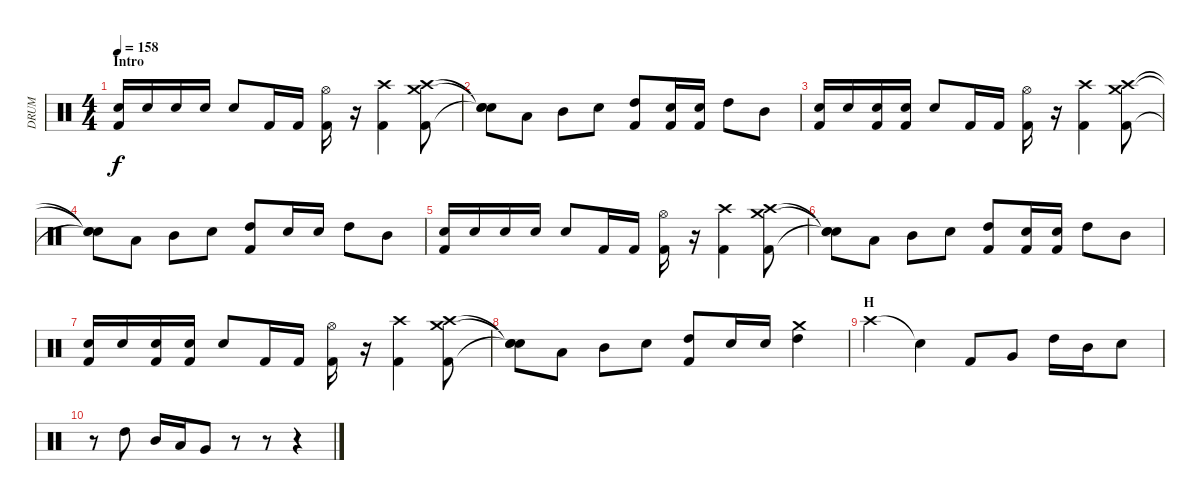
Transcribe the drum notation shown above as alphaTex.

\track ("DRUM" "DRUM") {instrument percussion}
\staff {score}
\articulation defaults
\ts (4 4)
\section ("" "Intro")
\tempo 158
\clef neutral
\ks c
("Snare (hit) 2" "Kick (hit) 2").16{dy f} "Snare (hit) 2".16 "Snare (hit) 2".16 "Snare (hit) 2".16 "Snare (hit) 2".8 "Kick (hit) 2".16 "Kick (hit) 2".16 ("Hi-Hat (open)" "Kick (hit) 2").16 r.16 ("Crash high (hit)" "Kick (hit) 2").4 ("Crash medium (hit)" "Crash high (hit)" "Kick (hit) 2").8 |
("Snare (hit)"{t} "Snare (hit)"{t} "Snare (hit)"{t}).8 "Low Tom (hit)".8 "Mid Tom (hit)".8 "Snare (hit) 2".8 ("High Tom (hit)" "Kick (hit) 2").8 ("Snare (hit) 2" "Kick (hit) 2").16 ("Snare (hit) 2" "Kick (hit) 2").16 "High Tom (hit)".8 "Mid Tom (hit)".8 |
("Electric Snare (hit)" "Kick (hit) 2").16 "Electric Snare (hit)".16 ("Electric Snare (hit)" "Kick (hit) 2").16 ("Electric Snare (hit)" "Kick (hit) 2").16 "Snare (hit) 2".8 "Kick (hit) 2".16 "Kick (hit) 2".16 ("Hi-Hat (open)" "Kick (hit) 2").16 r.16 ("Crash high (hit)" "Kick (hit) 2").4 ("Crash medium (hit)" "Crash high (hit)" "Kick (hit) 2").8 |
("Snare (hit)"{t} "Snare (hit)"{t} "Snare (hit)"{t}).8 "Low Tom (hit)".8 "Mid Tom (hit)".8 "Snare (hit) 2".8 ("High Tom (hit)" "Kick (hit) 2").8 "Snare (hit) 2".16 "Snare (hit) 2".16 "High Tom (hit)".8 "Mid Tom (hit)".8 |
("Electric Snare (hit)" "Kick (hit) 2").16 "Electric Snare (hit)".16 "Electric Snare (hit)".16 "Electric Snare (hit)".16 "Snare (hit) 2".8 "Kick (hit) 2".16 "Kick (hit) 2".16 ("Hi-Hat (open)" "Kick (hit) 2").16 r.16 ("Crash high (hit)" "Kick (hit) 2").4 ("Crash medium (hit)" "Crash high (hit)" "Kick (hit) 2").8 |
("Snare (hit)"{t} "Snare (hit)"{t} "Snare (hit)"{t}).8 "Low Tom (hit)".8 "Mid Tom (hit)".8 "Snare (hit) 2".8 ("High Tom (hit)" "Kick (hit) 2").8 ("Snare (hit) 2" "Kick (hit) 2").16 ("Snare (hit) 2" "Kick (hit) 2").16 "High Tom (hit)".8 "Mid Tom (hit)".8 |
("Electric Snare (hit)" "Kick (hit) 2").16 "Electric Snare (hit)".16 ("Electric Snare (hit)" "Kick (hit) 2").16 ("Electric Snare (hit)" "Kick (hit) 2").16 "Snare (hit) 2".8 "Kick (hit) 2".16 "Kick (hit) 2".16 ("Hi-Hat (open)" "Kick (hit) 2").16 r.16 ("Crash high (hit)" "Kick (hit) 2").4 ("Crash medium (hit)" "Crash high (hit)" "Kick (hit) 2").8 |
("Snare (hit)"{t} "Snare (hit)"{t} "Snare (hit)"{t}).8 "Low Tom (hit)".8 "Mid Tom (hit)".8 "Snare (hit) 2".8 ("High Tom (hit)" "Kick (hit) 2").8 "Snare (hit) 2".16 "Snare (hit) 2".16 ("Crash medium (hit)" "High Tom (hit)").4 |
\section ("" "H")
"Crash high (hit)".4 "Snare (hit)"{t}.4 "Kick (hit) 2".8 "Very Low Tom (hit)".8 "High Tom (hit)".16 "Mid Tom (hit)".16 "Snare (hit) 2".8 |
r.8 "High Tom (hit)".8 "Mid Tom (hit)".16 "Low Tom (hit)".16 "Very Low Tom (hit)".8 r.8 r.8 r.4
